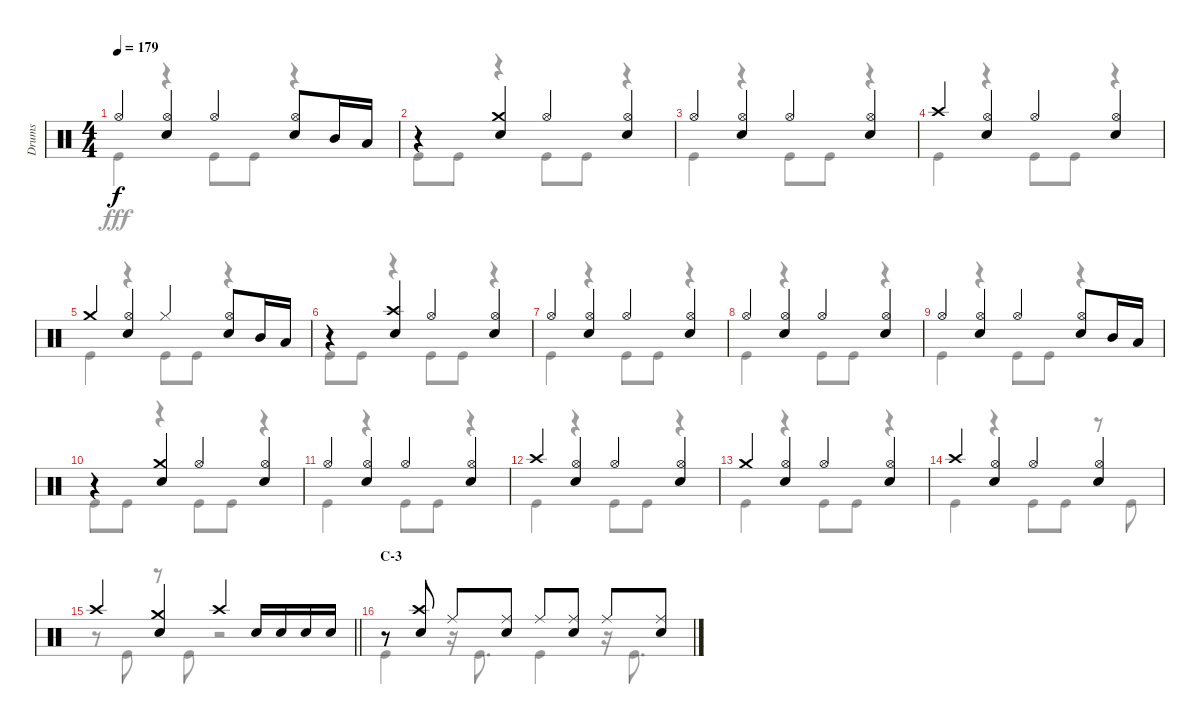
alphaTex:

\track ("Drums" "Drums") {instrument percussion}
\staff {score}
\articulation defaults
\voice
\ts (4 4)
\tempo 179
\clef neutral
\ks c "Hi-Hat (open)".4{dy f}
("Hi-Hat (open)" "Snare (hit) 2").4 "Hi-Hat (open)".4 ("Snare (hit) 2" "Hi-Hat (open)").8 "Mid Tom (hit)".16 "Low Tom (hit)".16 |
r.4 ("Crash medium (hit)" "Snare (hit) 2").4 "Hi-Hat (open)".4 ("Hi-Hat (open)" "Snare (hit) 2").4 |
"Hi-Hat (open)".4 ("Hi-Hat (open)" "Snare (hit) 2").4 "Hi-Hat (open)".4 ("Hi-Hat (open)" "Snare (hit) 2").4 |
"Crash high (hit)".4 ("Hi-Hat (open)" "Snare (hit) 2").4 "Hi-Hat (open)".4 ("Hi-Hat (open)" "Snare (hit) 2").4 |
"Crash medium (hit)".4 ("Hi-Hat (open)" "Snare (hit) 2").4 "Hi-Hat (closed)".4 ("Snare (hit) 2" "Hi-Hat (open)").8 "Mid Tom (hit)".16 "Low Tom (hit)".16 |
r.4 ("Crash high (hit)" "Snare (hit) 2").4 "Hi-Hat (open)".4 ("Hi-Hat (open)" "Snare (hit) 2").4 |
"Hi-Hat (open)".4 ("Hi-Hat (open)" "Snare (hit) 2").4 "Hi-Hat (open)".4 ("Hi-Hat (open)" "Snare (hit) 2").4 |
"Hi-Hat (open)".4 ("Hi-Hat (open)" "Snare (hit) 2").4 "Hi-Hat (open)".4 ("Hi-Hat (open)" "Snare (hit) 2").4 |
"Hi-Hat (open)".4 ("Hi-Hat (open)" "Snare (hit) 2").4 "Hi-Hat (open)".4 ("Hi-Hat (open)" "Snare (hit) 2").8 "Mid Tom (hit)".16 "Low Tom (hit)".16 |
r.4 ("Crash medium (hit)" "Snare (hit) 2").4 "Hi-Hat (open)".4 ("Hi-Hat (open)" "Snare (hit) 2").4 |
"Hi-Hat (open)".4 ("Hi-Hat (open)" "Snare (hit) 2").4 "Hi-Hat (open)".4 ("Hi-Hat (open)" "Snare (hit) 2").4 |
"Crash high (hit)".4 ("Hi-Hat (open)" "Snare (hit) 2").4 "Hi-Hat (open)".4 ("Hi-Hat (open)" "Snare (hit) 2").4 |
"Crash medium (hit)".4 ("Hi-Hat (open)" "Snare (hit) 2").4 "Hi-Hat (open)".4 ("Hi-Hat (open)" "Snare (hit) 2").4 |
"Crash high (hit)".4 ("Hi-Hat (open)" "Snare (hit) 2").4 "Hi-Hat (open)".4 ("Hi-Hat (open)" "Snare (hit) 2").4 |
\barLineRight lightlight "Crash high (hit)".4
("Crash medium (hit)" "Snare (hit) 2").4 "Crash high (hit)".4 "Snare (hit) 2".16 "Snare (hit) 2".16 "Snare (hit) 2".16 "Snare (hit) 2".16 |
\section ("" "C-3")
r.8 ("Crash high (hit)" "Snare (hit) 2").8 "Ride (middle)".8 ("Ride (middle)" "Snare (hit) 2").8 "Ride (middle)".8 ("Ride (middle)" "Snare (hit) 2").8 "Ride (middle)".8 ("Ride (middle)" "Snare (hit) 2").8
\voice
\clef neutral
\ottava regular
\simile none
\ks c "Kick (hit)".4{dy fff}
r.4 "Kick (hit)".8 "Kick (hit)".8 r.4 |
"Kick (hit)".8 "Kick (hit)".8 r.4 "Kick (hit)".8 "Kick (hit)".8 r.4 |
"Kick (hit)".4 r.4 "Kick (hit)".8 "Kick (hit)".8 r.4 |
"Kick (hit)".4 r.4 "Kick (hit)".8 "Kick (hit)".8 r.4 |
"Kick (hit)".4 r.4 "Kick (hit)".8 "Kick (hit)".8 r.4 |
"Kick (hit)".8 "Kick (hit)".8 r.4 "Kick (hit)".8 "Kick (hit)".8 r.4 |
"Kick (hit)".4 r.4 "Kick (hit)".8 "Kick (hit)".8 r.4 |
"Kick (hit)".4 r.4 "Kick (hit)".8 "Kick (hit)".8 r.4 |
"Kick (hit)".4 r.4 "Kick (hit)".8 "Kick (hit)".8 r.4 |
"Kick (hit)".8 "Kick (hit)".8 r.4 "Kick (hit)".8 "Kick (hit)".8 r.4 |
"Kick (hit)".4 r.4 "Kick (hit)".8 "Kick (hit)".8 r.4 |
"Kick (hit)".4 r.4 "Kick (hit)".8 "Kick (hit)".8 r.4 |
"Kick (hit)".4 r.4 "Kick (hit)".8 "Kick (hit)".8 r.4 |
"Kick (hit)".4 r.4 "Kick (hit)".8 "Kick (hit)".8 r.8 "Kick (hit)".8 |
\barLineRight lightlight
r.8 "Kick (hit)".8 r.8 "Kick (hit)".8 r.2 |
"Kick (hit)".4 r.16 "Kick (hit)".8{d} "Kick (hit)".4 r.16 "Kick (hit)".8{d}
